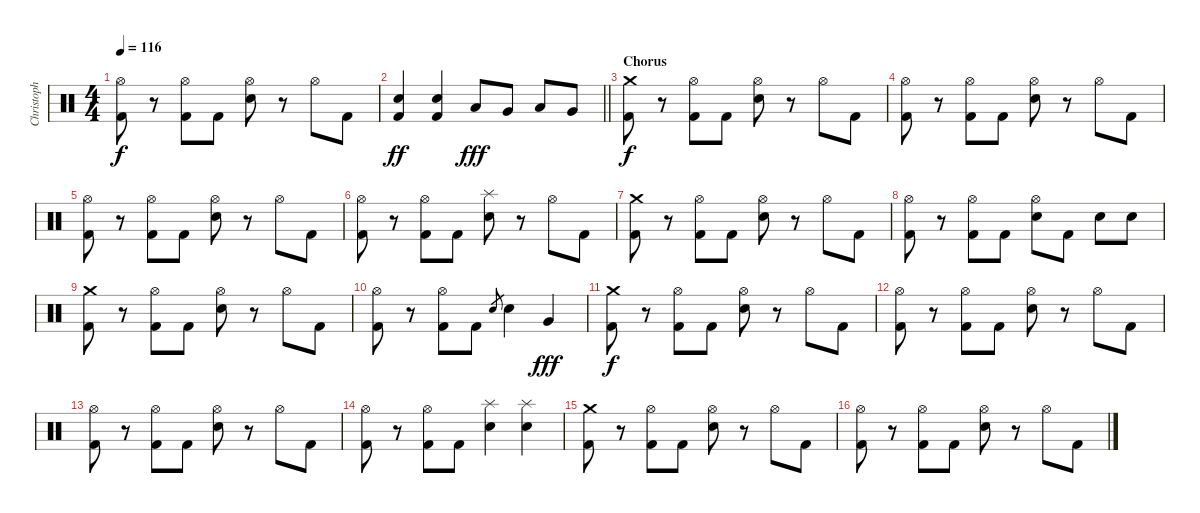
\track ("Christoph Schneider" "Christoph ") {instrument percussion}
\staff {score}
\articulation defaults
\ts (4 4)
\tempo 116
\clef neutral
\ks c
("Hi-Hat (open)" "Kick (hit) 2").8{dy f} r.8 ("Hi-Hat (open)" "Kick (hit) 2").8 "Kick (hit) 2".8 ("Hi-Hat (open)" "Snare (hit) 2").8 r.8 "Hi-Hat (open)".8 "Kick (hit) 2".8 |
\barLineRight lightlight
("Kick (hit) 2" "Snare (hit) 2").4{dy ff} ("Kick (hit) 2" "Snare (hit) 2").4 "Low Tom (hit)".8{dy fff} "Very Low Tom (hit)".8 "Low Tom (hit)".8 "Very Low Tom (hit)".8 |
\section ("" "Chorus")
("Crash medium (hit)" "Kick (hit) 2").8{dy f} r.8 ("Hi-Hat (open)" "Kick (hit) 2").8 "Kick (hit) 2".8 ("Hi-Hat (open)" "Snare (hit) 2").8 r.8 "Hi-Hat (open)".8 "Kick (hit) 2".8 |
("Hi-Hat (open)" "Kick (hit) 2").8 r.8 ("Hi-Hat (open)" "Kick (hit) 2").8 "Kick (hit) 2".8 ("Hi-Hat (open)" "Snare (hit) 2").8 r.8 "Hi-Hat (open)".8 "Kick (hit) 2".8 |
("Hi-Hat (open)" "Kick (hit) 2").8 r.8 ("Hi-Hat (open)" "Kick (hit) 2").8 "Kick (hit) 2".8 ("Hi-Hat (open)" "Snare (hit) 2").8 r.8 "Hi-Hat (open)".8 "Kick (hit) 2".8 |
("Hi-Hat (open)" "Kick (hit) 2").8 r.8 ("Hi-Hat (open)" "Kick (hit) 2").8 "Kick (hit) 2".8 ("Splash (hit)" "Snare (hit) 2").8 r.8 "Hi-Hat (open)".8 "Kick (hit) 2".8 |
("Crash medium (hit)" "Kick (hit) 2").8 r.8 ("Hi-Hat (open)" "Kick (hit) 2").8 "Kick (hit) 2".8 ("Hi-Hat (open)" "Snare (hit) 2").8 r.8 "Hi-Hat (open)".8 "Kick (hit) 2".8 |
("Hi-Hat (open)" "Kick (hit) 2").8 r.8 ("Hi-Hat (open)" "Kick (hit) 2").8 "Kick (hit) 2".8 ("Hi-Hat (open)" "Snare (hit) 2").8 "Kick (hit) 2".8 "Snare (hit) 2".8 "Snare (hit) 2".8 |
("Crash medium (hit)" "Kick (hit) 2").8 r.8 ("Hi-Hat (open)" "Kick (hit) 2").8 "Kick (hit) 2".8 ("Hi-Hat (open)" "Snare (hit) 2").8 r.8 "Hi-Hat (open)".8 "Kick (hit) 2".8 |
("Hi-Hat (open)" "Kick (hit) 2").8 r.8 ("Hi-Hat (open)" "Kick (hit) 2").8 "Kick (hit) 2".8 "Snare (hit) 2"{x}.8{gr} "Snare (hit) 2".4 "Very Low Tom (hit)".4{dy fff} |
("Crash medium (hit)" "Kick (hit) 2").8{dy f} r.8 ("Hi-Hat (open)" "Kick (hit) 2").8 "Kick (hit) 2".8 ("Hi-Hat (open)" "Snare (hit) 2").8 r.8 "Hi-Hat (open)".8 "Kick (hit) 2".8 |
("Hi-Hat (open)" "Kick (hit) 2").8 r.8 ("Hi-Hat (open)" "Kick (hit) 2").8 "Kick (hit) 2".8 ("Hi-Hat (open)" "Snare (hit) 2").8 r.8 "Hi-Hat (open)".8 "Kick (hit) 2".8 |
("Hi-Hat (open)" "Kick (hit) 2").8 r.8 ("Hi-Hat (open)" "Kick (hit) 2").8 "Kick (hit) 2".8 ("Hi-Hat (open)" "Snare (hit) 2").8 r.8 "Hi-Hat (open)".8 "Kick (hit) 2".8 |
("Hi-Hat (open)" "Kick (hit) 2").8 r.8 ("Hi-Hat (open)" "Kick (hit) 2").8 "Kick (hit) 2".8 ("Splash (hit)" "Snare (hit) 2").4 ("Splash (hit)" "Snare (hit) 2").4 |
("Crash medium (hit)" "Kick (hit) 2").8 r.8 ("Hi-Hat (open)" "Kick (hit) 2").8 "Kick (hit) 2".8 ("Hi-Hat (open)" "Snare (hit) 2").8 r.8 "Hi-Hat (open)".8 "Kick (hit) 2".8 |
("Hi-Hat (open)" "Kick (hit) 2").8 r.8 ("Hi-Hat (open)" "Kick (hit) 2").8 "Kick (hit) 2".8 ("Hi-Hat (open)" "Snare (hit) 2").8 r.8 "Hi-Hat (open)".8 "Kick (hit) 2".8
